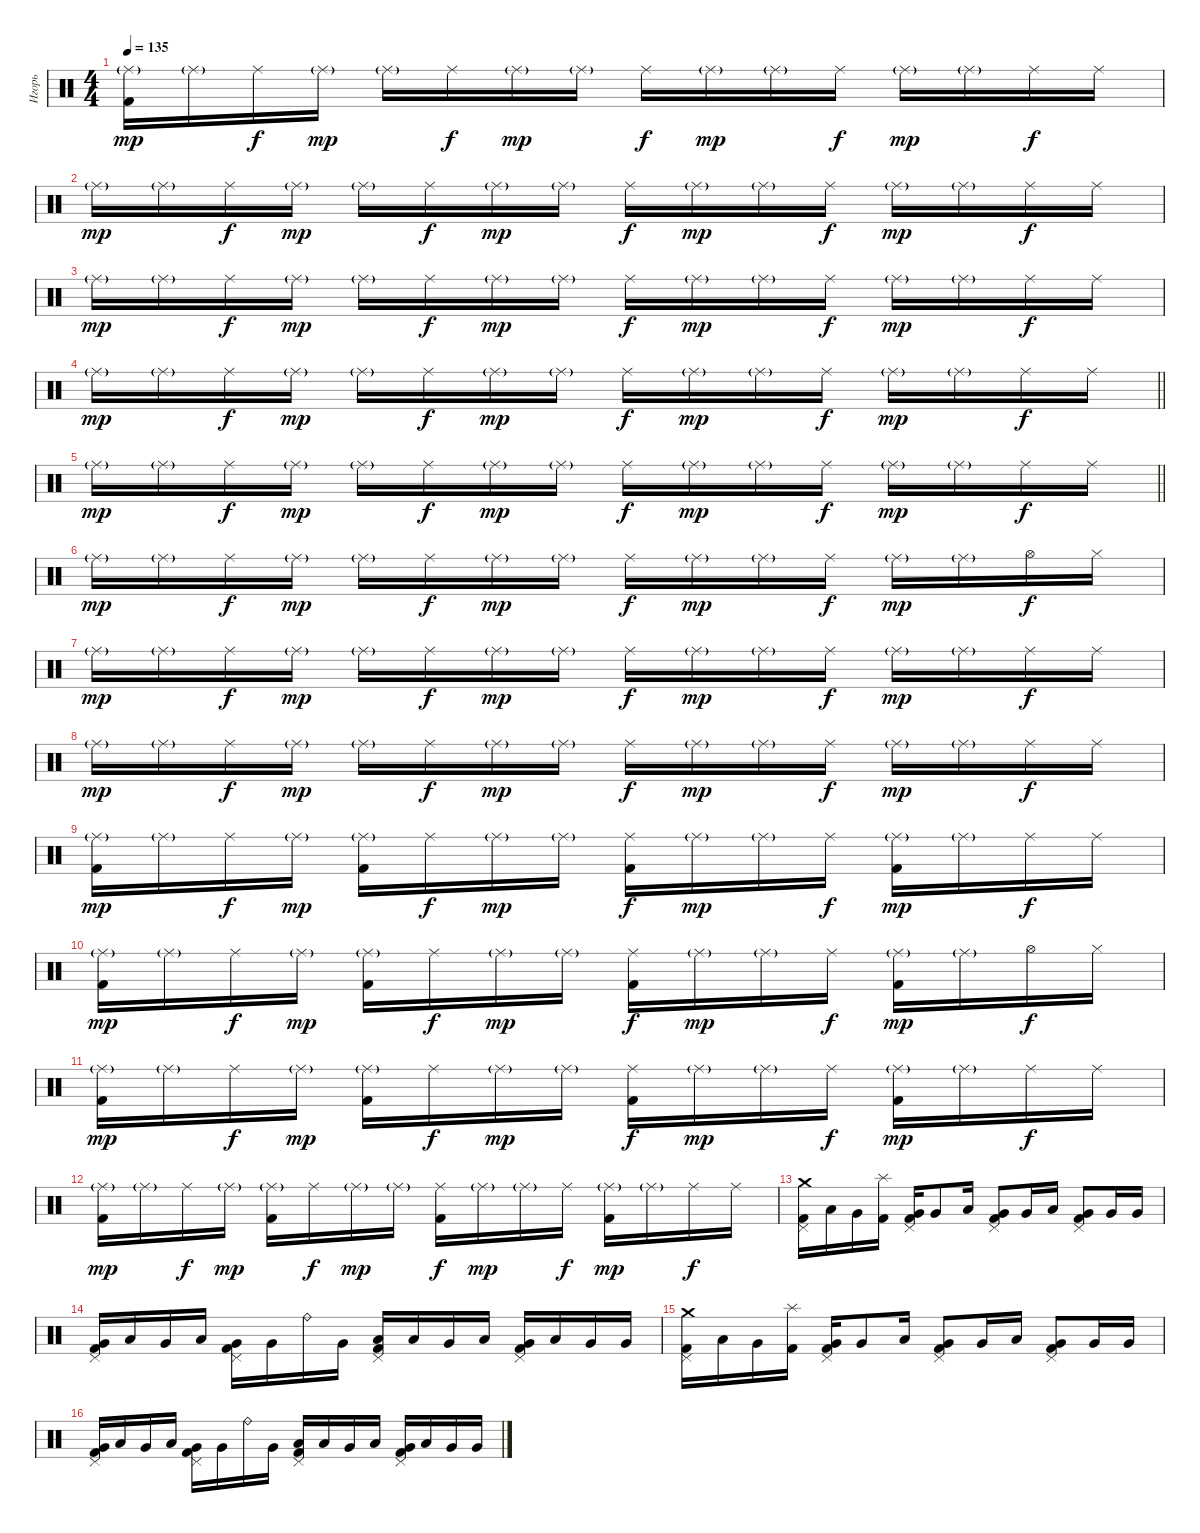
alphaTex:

\track ("Игорь" "Игорь") {instrument percussion}
\staff {score}
\articulation defaults
\ts (4 4)
\tempo 135
\clef neutral
\ks c
("Ride (middle)"{g} "Kick (hit) 2").16{dy mp} "Ride (middle)"{g}.16 "Ride (middle)".16{dy f} "Ride (middle)"{g}.16{dy mp} "Ride (middle)"{g}.16 "Ride (middle)".16{dy f} "Ride (middle)"{g}.16{dy mp} "Ride (middle)"{g}.16 "Ride (middle)".16{dy f} "Ride (middle)"{g}.16{dy mp} "Ride (middle)"{g}.16 "Ride (middle)".16{dy f} "Ride (middle)"{g}.16{dy mp} "Ride (middle)"{g}.16 "Ride (middle)".16{dy f} "Ride (middle)".16 |
"Ride (middle)"{g}.16{dy mp} "Ride (middle)"{g}.16 "Ride (middle)".16{dy f} "Ride (middle)"{g}.16{dy mp} "Ride (middle)"{g}.16 "Ride (middle)".16{dy f} "Ride (middle)"{g}.16{dy mp} "Ride (middle)"{g}.16 "Ride (middle)".16{dy f} "Ride (middle)"{g}.16{dy mp} "Ride (middle)"{g}.16 "Ride (middle)".16{dy f} "Ride (middle)"{g}.16{dy mp} "Ride (middle)"{g}.16 "Ride (middle)".16{dy f} "Ride (middle)".16 |
"Ride (middle)"{g}.16{dy mp} "Ride (middle)"{g}.16 "Ride (middle)".16{dy f} "Ride (middle)"{g}.16{dy mp} "Ride (middle)"{g}.16 "Ride (middle)".16{dy f} "Ride (middle)"{g}.16{dy mp} "Ride (middle)"{g}.16 "Ride (middle)".16{dy f} "Ride (middle)"{g}.16{dy mp} "Ride (middle)"{g}.16 "Ride (middle)".16{dy f} "Ride (middle)"{g}.16{dy mp} "Ride (middle)"{g}.16 "Ride (middle)".16{dy f} "Ride (middle)".16 |
\barLineRight lightlight "Ride (middle)"{g}.16{dy mp} "Ride (middle)"{g}.16 "Ride (middle)".16{dy f} "Ride (middle)"{g}.16{dy mp} "Ride (middle)"{g}.16 "Ride (middle)".16{dy f} "Ride (middle)"{g}.16{dy mp} "Ride (middle)"{g}.16 "Ride (middle)".16{dy f} "Ride (middle)"{g}.16{dy mp} "Ride (middle)"{g}.16 "Ride (middle)".16{dy f} "Ride (middle)"{g}.16{dy mp} "Ride (middle)"{g}.16 "Ride (middle)".16{dy f} "Ride (middle)".16
|
\barLineRight lightlight "Ride (middle)"{g}.16{dy mp} "Ride (middle)"{g}.16 "Ride (middle)".16{dy f} "Ride (middle)"{g}.16{dy mp} "Ride (middle)"{g}.16 "Ride (middle)".16{dy f} "Ride (middle)"{g}.16{dy mp} "Ride (middle)"{g}.16 "Ride (middle)".16{dy f} "Ride (middle)"{g}.16{dy mp} "Ride (middle)"{g}.16 "Ride (middle)".16{dy f} "Ride (middle)"{g}.16{dy mp} "Ride (middle)"{g}.16 "Ride (middle)".16{dy f} "Ride (middle)".16
|
"Ride (middle)"{g}.16{dy mp} "Ride (middle)"{g}.16 "Ride (middle)".16{dy f} "Ride (middle)"{g}.16{dy mp} "Ride (middle)"{g}.16 "Ride (middle)".16{dy f} "Ride (middle)"{g}.16{dy mp} "Ride (middle)"{g}.16 "Ride (middle)".16{dy f} "Ride (middle)"{g}.16{dy mp} "Ride (middle)"{g}.16 "Ride (middle)".16{dy f} "Ride (middle)"{g}.16{dy mp} "Ride (middle)"{g}.16 "Hi-Hat (open)".16{dy f} "Hi-Hat (closed)".16 |
"Ride (middle)"{g}.16{dy mp} "Ride (middle)"{g}.16 "Ride (middle)".16{dy f} "Ride (middle)"{g}.16{dy mp} "Ride (middle)"{g}.16 "Ride (middle)".16{dy f} "Ride (middle)"{g}.16{dy mp} "Ride (middle)"{g}.16 "Ride (middle)".16{dy f} "Ride (middle)"{g}.16{dy mp} "Ride (middle)"{g}.16 "Ride (middle)".16{dy f} "Ride (middle)"{g}.16{dy mp} "Ride (middle)"{g}.16 "Ride (middle)".16{dy f} "Ride (middle)".16 |
"Ride (middle)"{g}.16{dy mp} "Ride (middle)"{g}.16 "Ride (middle)".16{dy f} "Ride (middle)"{g}.16{dy mp} "Ride (middle)"{g}.16 "Ride (middle)".16{dy f} "Ride (middle)"{g}.16{dy mp} "Ride (middle)"{g}.16 "Ride (middle)".16{dy f} "Ride (middle)"{g}.16{dy mp} "Ride (middle)"{g}.16 "Ride (middle)".16{dy f} "Ride (middle)"{g}.16{dy mp} "Ride (middle)"{g}.16 "Ride (middle)".16{dy f} "Ride (middle)".16 |
("Ride (middle)"{g} "Kick (hit) 2").16{dy mp} "Ride (middle)"{g}.16 "Ride (middle)".16{dy f} "Ride (middle)"{g}.16{dy mp} ("Ride (middle)"{g} "Kick (hit) 2").16 "Ride (middle)".16{dy f} "Ride (middle)"{g}.16{dy mp} "Ride (middle)"{g}.16 ("Ride (middle)" "Kick (hit) 2").16{dy f} "Ride (middle)"{g}.16{dy mp} "Ride (middle)"{g}.16 "Ride (middle)".16{dy f} ("Ride (middle)"{g} "Kick (hit) 2").16{dy mp} "Ride (middle)"{g}.16 "Ride (middle)".16{dy f} "Ride (middle)".16 |
("Ride (middle)"{g} "Kick (hit) 2").16{dy mp} "Ride (middle)"{g}.16 "Ride (middle)".16{dy f} "Ride (middle)"{g}.16{dy mp} ("Ride (middle)"{g} "Kick (hit) 2").16 "Ride (middle)".16{dy f} "Ride (middle)"{g}.16{dy mp} "Ride (middle)"{g}.16 ("Ride (middle)" "Kick (hit) 2").16{dy f} "Ride (middle)"{g}.16{dy mp} "Ride (middle)"{g}.16 "Ride (middle)".16{dy f} ("Ride (middle)"{g} "Kick (hit) 2").16{dy mp} "Ride (middle)"{g}.16 "Hi-Hat (open)".16{dy f} "Hi-Hat (closed)".16 |
("Ride (middle)"{g} "Kick (hit) 2").16{dy mp} "Ride (middle)"{g}.16 "Ride (middle)".16{dy f} "Ride (middle)"{g}.16{dy mp} ("Ride (middle)"{g} "Kick (hit) 2").16 "Ride (middle)".16{dy f} "Ride (middle)"{g}.16{dy mp} "Ride (middle)"{g}.16 ("Ride (middle)" "Kick (hit) 2").16{dy f} "Ride (middle)"{g}.16{dy mp} "Ride (middle)"{g}.16 "Ride (middle)".16{dy f} ("Ride (middle)"{g} "Kick (hit) 2").16{dy mp} "Ride (middle)"{g}.16 "Ride (middle)".16{dy f} "Ride (middle)".16 |
("Ride (middle)"{g} "Kick (hit) 2").16{dy mp} "Ride (middle)"{g}.16 "Ride (middle)".16{dy f} "Ride (middle)"{g}.16{dy mp} ("Ride (middle)"{g} "Kick (hit) 2").16 "Ride (middle)".16{dy f} "Ride (middle)"{g}.16{dy mp} "Ride (middle)"{g}.16 ("Ride (middle)" "Kick (hit) 2").16{dy f} "Ride (middle)"{g}.16{dy mp} "Ride (middle)"{g}.16 "Ride (middle)".16{dy f} ("Ride (middle)"{g} "Kick (hit) 2").16{dy mp} "Ride (middle)"{g}.16 "Ride (middle)".16{dy f} "Ride (middle)".16 |
("Crash medium (hit)" "Pedal Hi-Hat (hit)" "Kick (hit) 2").16 "Low Tom (hit)".16 "Very Low Tom (hit)".16 ("Splash (hit)" "Kick (hit) 2").16 ("Very Low Tom (hit)" "Pedal Hi-Hat (hit)" "Kick (hit) 2").16 "Very Low Tom (hit)".8 "Low Tom (hit)".16 ("Very Low Tom (hit)" "Pedal Hi-Hat (hit)" "Kick (hit) 2").8 "Very Low Tom (hit)".16 "Low Tom (hit)".16 ("Very Low Tom (hit)" "Pedal Hi-Hat (hit)" "Kick (hit) 2").8 "Very Low Tom (hit)".16 "Very Low Tom (hit)".16 |
("Very Low Tom (hit)" "Pedal Hi-Hat (hit)" "Kick (hit) 2").16 "Low Tom (hit)".16 "Very Low Tom (hit)".16 "Low Tom (hit)".16 ("Very Low Tom (hit)" "Pedal Hi-Hat (hit)" "Kick (hit) 2").16 "Very Low Tom (hit)".16 "Ride (bell)".16 "Very Low Tom (hit)".16 ("Low Tom (hit)" "Pedal Hi-Hat (hit)" "Kick (hit) 2").16 "Low Tom (hit)".16 "Very Low Tom (hit)".16 "Low Tom (hit)".16 ("Very Low Tom (hit)" "Pedal Hi-Hat (hit)" "Kick (hit) 2").16 "Low Tom (hit)".16 "Very Low Tom (hit)".16 "Very Low Tom (hit)".16 |
("Crash medium (hit)" "Pedal Hi-Hat (hit)" "Kick (hit) 2").16 "Low Tom (hit)".16 "Very Low Tom (hit)".16 ("Splash (hit)" "Kick (hit) 2").16 ("Very Low Tom (hit)" "Pedal Hi-Hat (hit)" "Kick (hit) 2").16 "Very Low Tom (hit)".8 "Low Tom (hit)".16 ("Very Low Tom (hit)" "Pedal Hi-Hat (hit)" "Kick (hit) 2").8 "Very Low Tom (hit)".16 "Low Tom (hit)".16 ("Very Low Tom (hit)" "Pedal Hi-Hat (hit)" "Kick (hit) 2").8 "Very Low Tom (hit)".16 "Very Low Tom (hit)".16 |
("Very Low Tom (hit)" "Pedal Hi-Hat (hit)" "Kick (hit) 2").16 "Low Tom (hit)".16 "Very Low Tom (hit)".16 "Low Tom (hit)".16 ("Very Low Tom (hit)" "Pedal Hi-Hat (hit)" "Kick (hit) 2").16 "Very Low Tom (hit)".16 "Ride (bell)".16 "Very Low Tom (hit)".16 ("Low Tom (hit)" "Pedal Hi-Hat (hit)" "Kick (hit) 2").16 "Low Tom (hit)".16 "Very Low Tom (hit)".16 "Low Tom (hit)".16 ("Very Low Tom (hit)" "Pedal Hi-Hat (hit)" "Kick (hit) 2").16 "Low Tom (hit)".16 "Very Low Tom (hit)".16 "Very Low Tom (hit)".16
